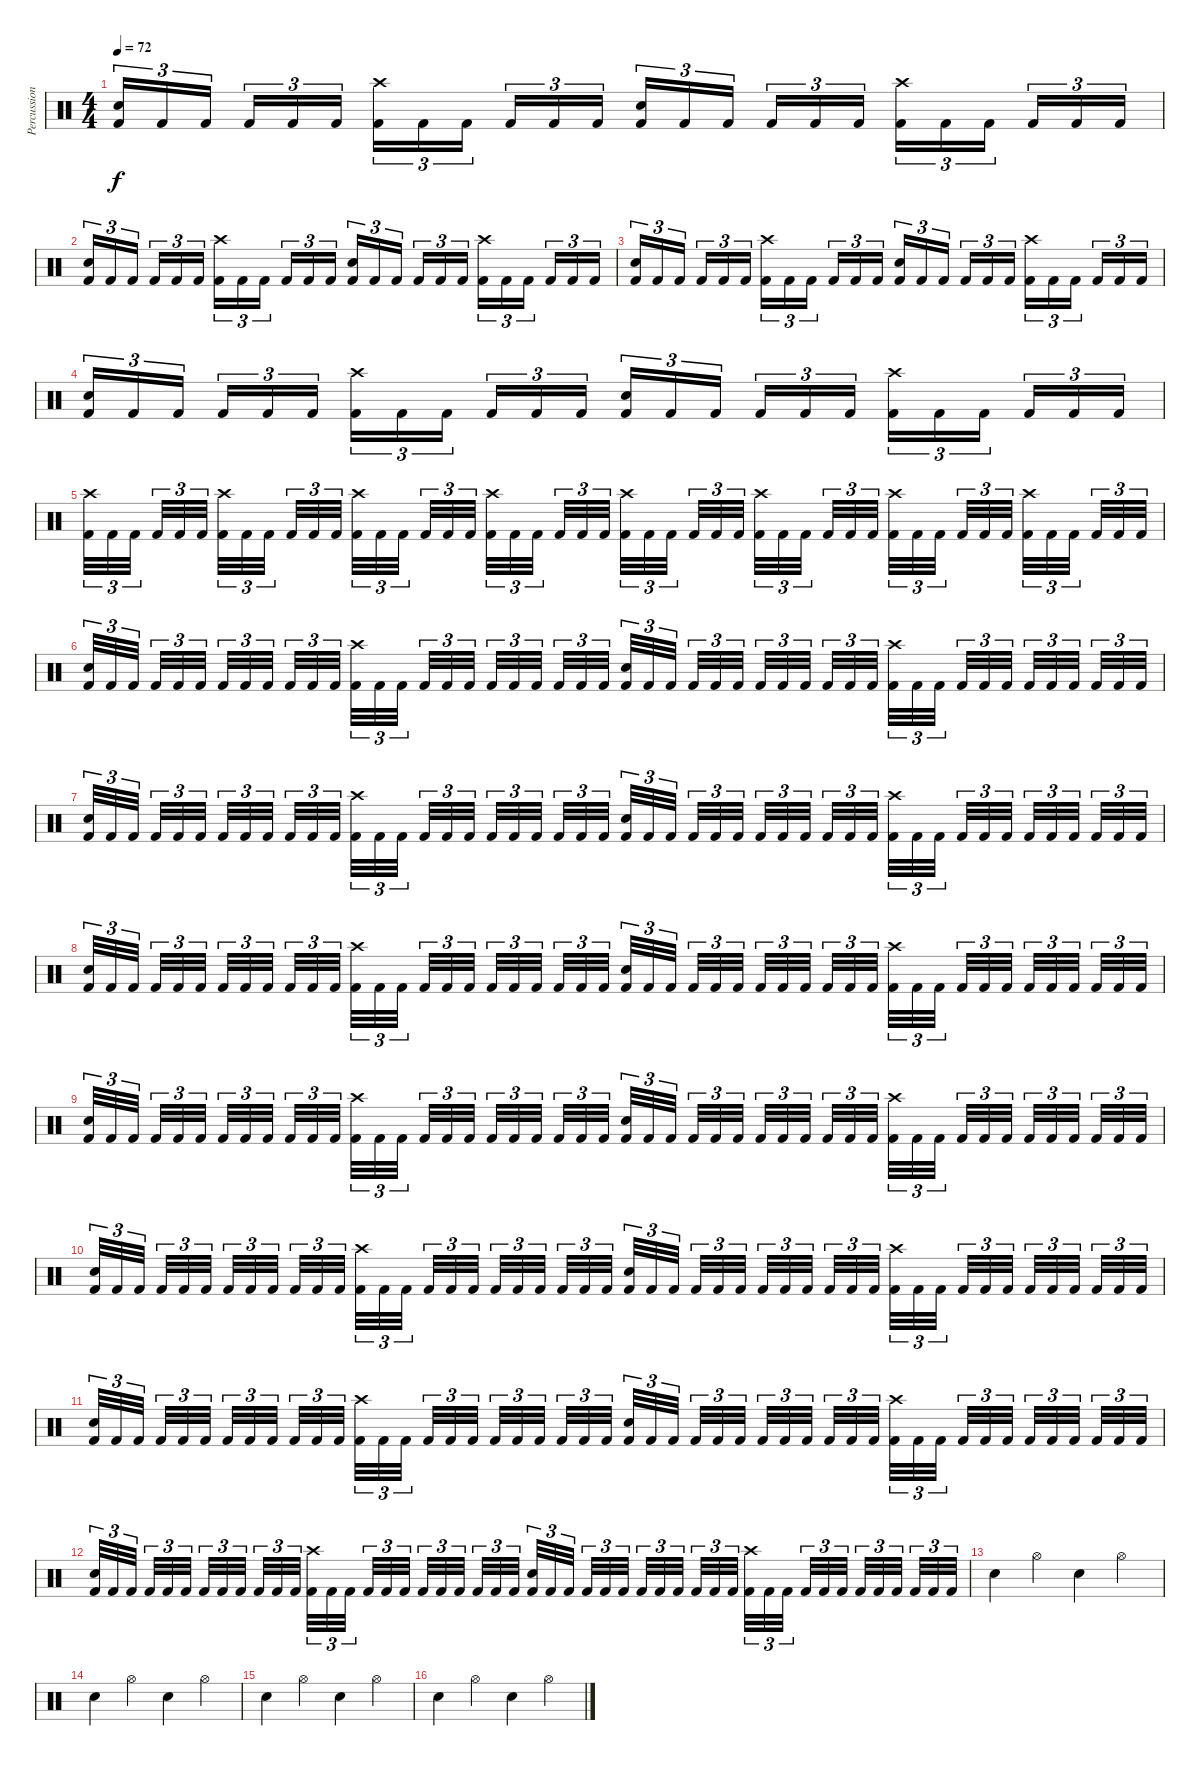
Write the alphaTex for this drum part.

\track ("Percussion" "Percussion") {instrument percussion}
\staff {score}
\articulation defaults
\ts (4 4)
\tempo 72
\clef neutral
\ks c
("Snare (hit) 2" "Kick (hit) 2").16{tu (3 2) dy f} "Kick (hit) 2".16{tu (3 2)} "Kick (hit) 2".16{tu (3 2) beam splitsecondary} "Kick (hit) 2".16{tu (3 2)} "Kick (hit) 2".16{tu (3 2)} "Kick (hit) 2".16{tu (3 2)} ("Crash high (hit)" "Kick (hit) 2").16{tu (3 2)} "Kick (hit) 2".16{tu (3 2)} "Kick (hit) 2".16{tu (3 2) beam splitsecondary} "Kick (hit) 2".16{tu (3 2)} "Kick (hit) 2".16{tu (3 2)} "Kick (hit) 2".16{tu (3 2)} ("Snare (hit) 2" "Kick (hit) 2").16{tu (3 2)} "Kick (hit) 2".16{tu (3 2)} "Kick (hit) 2".16{tu (3 2) beam splitsecondary} "Kick (hit) 2".16{tu (3 2)} "Kick (hit) 2".16{tu (3 2)} "Kick (hit) 2".16{tu (3 2)} ("Crash high (hit)" "Kick (hit) 2").16{tu (3 2)} "Kick (hit) 2".16{tu (3 2)} "Kick (hit) 2".16{tu (3 2) beam splitsecondary} "Kick (hit) 2".16{tu (3 2)} "Kick (hit) 2".16{tu (3 2)} "Kick (hit) 2".16{tu (3 2)} |
("Snare (hit) 2" "Kick (hit) 2").16{tu (3 2)} "Kick (hit) 2".16{tu (3 2)} "Kick (hit) 2".16{tu (3 2) beam splitsecondary} "Kick (hit) 2".16{tu (3 2)} "Kick (hit) 2".16{tu (3 2)} "Kick (hit) 2".16{tu (3 2)} ("Crash high (hit)" "Kick (hit) 2").16{tu (3 2)} "Kick (hit) 2".16{tu (3 2)} "Kick (hit) 2".16{tu (3 2) beam splitsecondary} "Kick (hit) 2".16{tu (3 2)} "Kick (hit) 2".16{tu (3 2)} "Kick (hit) 2".16{tu (3 2)} ("Snare (hit) 2" "Kick (hit) 2").16{tu (3 2)} "Kick (hit) 2".16{tu (3 2)} "Kick (hit) 2".16{tu (3 2) beam splitsecondary} "Kick (hit) 2".16{tu (3 2)} "Kick (hit) 2".16{tu (3 2)} "Kick (hit) 2".16{tu (3 2)} ("Crash high (hit)" "Kick (hit) 2").16{tu (3 2)} "Kick (hit) 2".16{tu (3 2)} "Kick (hit) 2".16{tu (3 2) beam splitsecondary} "Kick (hit) 2".16{tu (3 2)} "Kick (hit) 2".16{tu (3 2)} "Kick (hit) 2".16{tu (3 2)} |
("Snare (hit) 2" "Kick (hit) 2").16{tu (3 2)} "Kick (hit) 2".16{tu (3 2)} "Kick (hit) 2".16{tu (3 2) beam splitsecondary} "Kick (hit) 2".16{tu (3 2)} "Kick (hit) 2".16{tu (3 2)} "Kick (hit) 2".16{tu (3 2)} ("Crash high (hit)" "Kick (hit) 2").16{tu (3 2)} "Kick (hit) 2".16{tu (3 2)} "Kick (hit) 2".16{tu (3 2) beam splitsecondary} "Kick (hit) 2".16{tu (3 2)} "Kick (hit) 2".16{tu (3 2)} "Kick (hit) 2".16{tu (3 2)} ("Snare (hit) 2" "Kick (hit) 2").16{tu (3 2)} "Kick (hit) 2".16{tu (3 2)} "Kick (hit) 2".16{tu (3 2) beam splitsecondary} "Kick (hit) 2".16{tu (3 2)} "Kick (hit) 2".16{tu (3 2)} "Kick (hit) 2".16{tu (3 2)} ("Crash high (hit)" "Kick (hit) 2").16{tu (3 2)} "Kick (hit) 2".16{tu (3 2)} "Kick (hit) 2".16{tu (3 2) beam splitsecondary} "Kick (hit) 2".16{tu (3 2)} "Kick (hit) 2".16{tu (3 2)} "Kick (hit) 2".16{tu (3 2)} |
("Snare (hit) 2" "Kick (hit) 2").16{tu (3 2)} "Kick (hit) 2".16{tu (3 2)} "Kick (hit) 2".16{tu (3 2) beam splitsecondary} "Kick (hit) 2".16{tu (3 2)} "Kick (hit) 2".16{tu (3 2)} "Kick (hit) 2".16{tu (3 2)} ("Crash high (hit)" "Kick (hit) 2").16{tu (3 2)} "Kick (hit) 2".16{tu (3 2)} "Kick (hit) 2".16{tu (3 2) beam splitsecondary} "Kick (hit) 2".16{tu (3 2)} "Kick (hit) 2".16{tu (3 2)} "Kick (hit) 2".16{tu (3 2)} ("Snare (hit) 2" "Kick (hit) 2").16{tu (3 2)} "Kick (hit) 2".16{tu (3 2)} "Kick (hit) 2".16{tu (3 2) beam splitsecondary} "Kick (hit) 2".16{tu (3 2)} "Kick (hit) 2".16{tu (3 2)} "Kick (hit) 2".16{tu (3 2)} ("Crash high (hit)" "Kick (hit) 2").16{tu (3 2)} "Kick (hit) 2".16{tu (3 2)} "Kick (hit) 2".16{tu (3 2) beam splitsecondary} "Kick (hit) 2".16{tu (3 2)} "Kick (hit) 2".16{tu (3 2)} "Kick (hit) 2".16{tu (3 2)} |
("Crash high (hit)" "Kick (hit) 2").32{tu (3 2)} "Kick (hit) 2".32{tu (3 2)} "Kick (hit) 2".32{tu (3 2) beam splitsecondary} "Kick (hit) 2".32{tu (3 2)} "Kick (hit) 2".32{tu (3 2)} "Kick (hit) 2".32{tu (3 2) beam splitsecondary} ("Crash high (hit)" "Kick (hit) 2").32{tu (3 2)} "Kick (hit) 2".32{tu (3 2)} "Kick (hit) 2".32{tu (3 2) beam splitsecondary} "Kick (hit) 2".32{tu (3 2)} "Kick (hit) 2".32{tu (3 2)} "Kick (hit) 2".32{tu (3 2)} ("Crash high (hit)" "Kick (hit) 2").32{tu (3 2)} "Kick (hit) 2".32{tu (3 2)} "Kick (hit) 2".32{tu (3 2) beam splitsecondary} "Kick (hit) 2".32{tu (3 2)} "Kick (hit) 2".32{tu (3 2)} "Kick (hit) 2".32{tu (3 2) beam splitsecondary} ("Crash high (hit)" "Kick (hit) 2").32{tu (3 2)} "Kick (hit) 2".32{tu (3 2)} "Kick (hit) 2".32{tu (3 2) beam splitsecondary} "Kick (hit) 2".32{tu (3 2)} "Kick (hit) 2".32{tu (3 2)} "Kick (hit) 2".32{tu (3 2)} ("Crash high (hit)" "Kick (hit) 2").32{tu (3 2)} "Kick (hit) 2".32{tu (3 2)} "Kick (hit) 2".32{tu (3 2) beam splitsecondary} "Kick (hit) 2".32{tu (3 2)} "Kick (hit) 2".32{tu (3 2)} "Kick (hit) 2".32{tu (3 2) beam splitsecondary} ("Crash high (hit)" "Kick (hit) 2").32{tu (3 2)} "Kick (hit) 2".32{tu (3 2)} "Kick (hit) 2".32{tu (3 2) beam splitsecondary} "Kick (hit) 2".32{tu (3 2)} "Kick (hit) 2".32{tu (3 2)} "Kick (hit) 2".32{tu (3 2)} ("Crash high (hit)" "Kick (hit) 2").32{tu (3 2)} "Kick (hit) 2".32{tu (3 2)} "Kick (hit) 2".32{tu (3 2) beam splitsecondary} "Kick (hit) 2".32{tu (3 2)} "Kick (hit) 2".32{tu (3 2)} "Kick (hit) 2".32{tu (3 2) beam splitsecondary} ("Crash high (hit)" "Kick (hit) 2").32{tu (3 2)} "Kick (hit) 2".32{tu (3 2)} "Kick (hit) 2".32{tu (3 2) beam splitsecondary} "Kick (hit) 2".32{tu (3 2)} "Kick (hit) 2".32{tu (3 2)} "Kick (hit) 2".32{tu (3 2)} |
("Snare (hit) 2" "Kick (hit) 2").32{tu (3 2)} "Kick (hit) 2".32{tu (3 2)} "Kick (hit) 2".32{tu (3 2) beam splitsecondary} "Kick (hit) 2".32{tu (3 2)} "Kick (hit) 2".32{tu (3 2)} "Kick (hit) 2".32{tu (3 2) beam splitsecondary} "Kick (hit) 2".32{tu (3 2)} "Kick (hit) 2".32{tu (3 2)} "Kick (hit) 2".32{tu (3 2) beam splitsecondary} "Kick (hit) 2".32{tu (3 2)} "Kick (hit) 2".32{tu (3 2)} "Kick (hit) 2".32{tu (3 2)} ("Crash high (hit)" "Kick (hit) 2").32{tu (3 2)} "Kick (hit) 2".32{tu (3 2)} "Kick (hit) 2".32{tu (3 2) beam splitsecondary} "Kick (hit) 2".32{tu (3 2)} "Kick (hit) 2".32{tu (3 2)} "Kick (hit) 2".32{tu (3 2) beam splitsecondary} "Kick (hit) 2".32{tu (3 2)} "Kick (hit) 2".32{tu (3 2)} "Kick (hit) 2".32{tu (3 2) beam splitsecondary} "Kick (hit) 2".32{tu (3 2)} "Kick (hit) 2".32{tu (3 2)} "Kick (hit) 2".32{tu (3 2)} ("Snare (hit) 2" "Kick (hit) 2").32{tu (3 2)} "Kick (hit) 2".32{tu (3 2)} "Kick (hit) 2".32{tu (3 2) beam splitsecondary} "Kick (hit) 2".32{tu (3 2)} "Kick (hit) 2".32{tu (3 2)} "Kick (hit) 2".32{tu (3 2) beam splitsecondary} "Kick (hit) 2".32{tu (3 2)} "Kick (hit) 2".32{tu (3 2)} "Kick (hit) 2".32{tu (3 2) beam splitsecondary} "Kick (hit) 2".32{tu (3 2)} "Kick (hit) 2".32{tu (3 2)} "Kick (hit) 2".32{tu (3 2)} ("Crash high (hit)" "Kick (hit) 2").32{tu (3 2)} "Kick (hit) 2".32{tu (3 2)} "Kick (hit) 2".32{tu (3 2) beam splitsecondary} "Kick (hit) 2".32{tu (3 2)} "Kick (hit) 2".32{tu (3 2)} "Kick (hit) 2".32{tu (3 2) beam splitsecondary} "Kick (hit) 2".32{tu (3 2)} "Kick (hit) 2".32{tu (3 2)} "Kick (hit) 2".32{tu (3 2) beam splitsecondary} "Kick (hit) 2".32{tu (3 2)} "Kick (hit) 2".32{tu (3 2)} "Kick (hit) 2".32{tu (3 2)} |
("Snare (hit) 2" "Kick (hit) 2").32{tu (3 2)} "Kick (hit) 2".32{tu (3 2)} "Kick (hit) 2".32{tu (3 2) beam splitsecondary} "Kick (hit) 2".32{tu (3 2)} "Kick (hit) 2".32{tu (3 2)} "Kick (hit) 2".32{tu (3 2) beam splitsecondary} "Kick (hit) 2".32{tu (3 2)} "Kick (hit) 2".32{tu (3 2)} "Kick (hit) 2".32{tu (3 2) beam splitsecondary} "Kick (hit) 2".32{tu (3 2)} "Kick (hit) 2".32{tu (3 2)} "Kick (hit) 2".32{tu (3 2)} ("Crash high (hit)" "Kick (hit) 2").32{tu (3 2)} "Kick (hit) 2".32{tu (3 2)} "Kick (hit) 2".32{tu (3 2) beam splitsecondary} "Kick (hit) 2".32{tu (3 2)} "Kick (hit) 2".32{tu (3 2)} "Kick (hit) 2".32{tu (3 2) beam splitsecondary} "Kick (hit) 2".32{tu (3 2)} "Kick (hit) 2".32{tu (3 2)} "Kick (hit) 2".32{tu (3 2) beam splitsecondary} "Kick (hit) 2".32{tu (3 2)} "Kick (hit) 2".32{tu (3 2)} "Kick (hit) 2".32{tu (3 2)} ("Snare (hit) 2" "Kick (hit) 2").32{tu (3 2)} "Kick (hit) 2".32{tu (3 2)} "Kick (hit) 2".32{tu (3 2) beam splitsecondary} "Kick (hit) 2".32{tu (3 2)} "Kick (hit) 2".32{tu (3 2)} "Kick (hit) 2".32{tu (3 2) beam splitsecondary} "Kick (hit) 2".32{tu (3 2)} "Kick (hit) 2".32{tu (3 2)} "Kick (hit) 2".32{tu (3 2) beam splitsecondary} "Kick (hit) 2".32{tu (3 2)} "Kick (hit) 2".32{tu (3 2)} "Kick (hit) 2".32{tu (3 2)} ("Crash high (hit)" "Kick (hit) 2").32{tu (3 2)} "Kick (hit) 2".32{tu (3 2)} "Kick (hit) 2".32{tu (3 2) beam splitsecondary} "Kick (hit) 2".32{tu (3 2)} "Kick (hit) 2".32{tu (3 2)} "Kick (hit) 2".32{tu (3 2) beam splitsecondary} "Kick (hit) 2".32{tu (3 2)} "Kick (hit) 2".32{tu (3 2)} "Kick (hit) 2".32{tu (3 2) beam splitsecondary} "Kick (hit) 2".32{tu (3 2)} "Kick (hit) 2".32{tu (3 2)} "Kick (hit) 2".32{tu (3 2)} |
("Snare (hit) 2" "Kick (hit) 2").32{tu (3 2)} "Kick (hit) 2".32{tu (3 2)} "Kick (hit) 2".32{tu (3 2) beam splitsecondary} "Kick (hit) 2".32{tu (3 2)} "Kick (hit) 2".32{tu (3 2)} "Kick (hit) 2".32{tu (3 2) beam splitsecondary} "Kick (hit) 2".32{tu (3 2)} "Kick (hit) 2".32{tu (3 2)} "Kick (hit) 2".32{tu (3 2) beam splitsecondary} "Kick (hit) 2".32{tu (3 2)} "Kick (hit) 2".32{tu (3 2)} "Kick (hit) 2".32{tu (3 2)} ("Crash high (hit)" "Kick (hit) 2").32{tu (3 2)} "Kick (hit) 2".32{tu (3 2)} "Kick (hit) 2".32{tu (3 2) beam splitsecondary} "Kick (hit) 2".32{tu (3 2)} "Kick (hit) 2".32{tu (3 2)} "Kick (hit) 2".32{tu (3 2) beam splitsecondary} "Kick (hit) 2".32{tu (3 2)} "Kick (hit) 2".32{tu (3 2)} "Kick (hit) 2".32{tu (3 2) beam splitsecondary} "Kick (hit) 2".32{tu (3 2)} "Kick (hit) 2".32{tu (3 2)} "Kick (hit) 2".32{tu (3 2)} ("Snare (hit) 2" "Kick (hit) 2").32{tu (3 2)} "Kick (hit) 2".32{tu (3 2)} "Kick (hit) 2".32{tu (3 2) beam splitsecondary} "Kick (hit) 2".32{tu (3 2)} "Kick (hit) 2".32{tu (3 2)} "Kick (hit) 2".32{tu (3 2) beam splitsecondary} "Kick (hit) 2".32{tu (3 2)} "Kick (hit) 2".32{tu (3 2)} "Kick (hit) 2".32{tu (3 2) beam splitsecondary} "Kick (hit) 2".32{tu (3 2)} "Kick (hit) 2".32{tu (3 2)} "Kick (hit) 2".32{tu (3 2)} ("Crash high (hit)" "Kick (hit) 2").32{tu (3 2)} "Kick (hit) 2".32{tu (3 2)} "Kick (hit) 2".32{tu (3 2) beam splitsecondary} "Kick (hit) 2".32{tu (3 2)} "Kick (hit) 2".32{tu (3 2)} "Kick (hit) 2".32{tu (3 2) beam splitsecondary} "Kick (hit) 2".32{tu (3 2)} "Kick (hit) 2".32{tu (3 2)} "Kick (hit) 2".32{tu (3 2) beam splitsecondary} "Kick (hit) 2".32{tu (3 2)} "Kick (hit) 2".32{tu (3 2)} "Kick (hit) 2".32{tu (3 2)} |
("Snare (hit) 2" "Kick (hit) 2").32{tu (3 2)} "Kick (hit) 2".32{tu (3 2)} "Kick (hit) 2".32{tu (3 2) beam splitsecondary} "Kick (hit) 2".32{tu (3 2)} "Kick (hit) 2".32{tu (3 2)} "Kick (hit) 2".32{tu (3 2) beam splitsecondary} "Kick (hit) 2".32{tu (3 2)} "Kick (hit) 2".32{tu (3 2)} "Kick (hit) 2".32{tu (3 2) beam splitsecondary} "Kick (hit) 2".32{tu (3 2)} "Kick (hit) 2".32{tu (3 2)} "Kick (hit) 2".32{tu (3 2)} ("Crash high (hit)" "Kick (hit) 2").32{tu (3 2)} "Kick (hit) 2".32{tu (3 2)} "Kick (hit) 2".32{tu (3 2) beam splitsecondary} "Kick (hit) 2".32{tu (3 2)} "Kick (hit) 2".32{tu (3 2)} "Kick (hit) 2".32{tu (3 2) beam splitsecondary} "Kick (hit) 2".32{tu (3 2)} "Kick (hit) 2".32{tu (3 2)} "Kick (hit) 2".32{tu (3 2) beam splitsecondary} "Kick (hit) 2".32{tu (3 2)} "Kick (hit) 2".32{tu (3 2)} "Kick (hit) 2".32{tu (3 2)} ("Snare (hit) 2" "Kick (hit) 2").32{tu (3 2)} "Kick (hit) 2".32{tu (3 2)} "Kick (hit) 2".32{tu (3 2) beam splitsecondary} "Kick (hit) 2".32{tu (3 2)} "Kick (hit) 2".32{tu (3 2)} "Kick (hit) 2".32{tu (3 2) beam splitsecondary} "Kick (hit) 2".32{tu (3 2)} "Kick (hit) 2".32{tu (3 2)} "Kick (hit) 2".32{tu (3 2) beam splitsecondary} "Kick (hit) 2".32{tu (3 2)} "Kick (hit) 2".32{tu (3 2)} "Kick (hit) 2".32{tu (3 2)} ("Crash high (hit)" "Kick (hit) 2").32{tu (3 2)} "Kick (hit) 2".32{tu (3 2)} "Kick (hit) 2".32{tu (3 2) beam splitsecondary} "Kick (hit) 2".32{tu (3 2)} "Kick (hit) 2".32{tu (3 2)} "Kick (hit) 2".32{tu (3 2) beam splitsecondary} "Kick (hit) 2".32{tu (3 2)} "Kick (hit) 2".32{tu (3 2)} "Kick (hit) 2".32{tu (3 2) beam splitsecondary} "Kick (hit) 2".32{tu (3 2)} "Kick (hit) 2".32{tu (3 2)} "Kick (hit) 2".32{tu (3 2)} |
("Snare (hit) 2" "Kick (hit) 2").32{tu (3 2)} "Kick (hit) 2".32{tu (3 2)} "Kick (hit) 2".32{tu (3 2) beam splitsecondary} "Kick (hit) 2".32{tu (3 2)} "Kick (hit) 2".32{tu (3 2)} "Kick (hit) 2".32{tu (3 2) beam splitsecondary} "Kick (hit) 2".32{tu (3 2)} "Kick (hit) 2".32{tu (3 2)} "Kick (hit) 2".32{tu (3 2) beam splitsecondary} "Kick (hit) 2".32{tu (3 2)} "Kick (hit) 2".32{tu (3 2)} "Kick (hit) 2".32{tu (3 2)} ("Crash high (hit)" "Kick (hit) 2").32{tu (3 2)} "Kick (hit) 2".32{tu (3 2)} "Kick (hit) 2".32{tu (3 2) beam splitsecondary} "Kick (hit) 2".32{tu (3 2)} "Kick (hit) 2".32{tu (3 2)} "Kick (hit) 2".32{tu (3 2) beam splitsecondary} "Kick (hit) 2".32{tu (3 2)} "Kick (hit) 2".32{tu (3 2)} "Kick (hit) 2".32{tu (3 2) beam splitsecondary} "Kick (hit) 2".32{tu (3 2)} "Kick (hit) 2".32{tu (3 2)} "Kick (hit) 2".32{tu (3 2)} ("Snare (hit) 2" "Kick (hit) 2").32{tu (3 2)} "Kick (hit) 2".32{tu (3 2)} "Kick (hit) 2".32{tu (3 2) beam splitsecondary} "Kick (hit) 2".32{tu (3 2)} "Kick (hit) 2".32{tu (3 2)} "Kick (hit) 2".32{tu (3 2) beam splitsecondary} "Kick (hit) 2".32{tu (3 2)} "Kick (hit) 2".32{tu (3 2)} "Kick (hit) 2".32{tu (3 2) beam splitsecondary} "Kick (hit) 2".32{tu (3 2)} "Kick (hit) 2".32{tu (3 2)} "Kick (hit) 2".32{tu (3 2)} ("Crash high (hit)" "Kick (hit) 2").32{tu (3 2)} "Kick (hit) 2".32{tu (3 2)} "Kick (hit) 2".32{tu (3 2) beam splitsecondary} "Kick (hit) 2".32{tu (3 2)} "Kick (hit) 2".32{tu (3 2)} "Kick (hit) 2".32{tu (3 2) beam splitsecondary} "Kick (hit) 2".32{tu (3 2)} "Kick (hit) 2".32{tu (3 2)} "Kick (hit) 2".32{tu (3 2) beam splitsecondary} "Kick (hit) 2".32{tu (3 2)} "Kick (hit) 2".32{tu (3 2)} "Kick (hit) 2".32{tu (3 2)} |
("Snare (hit) 2" "Kick (hit) 2").32{tu (3 2)} "Kick (hit) 2".32{tu (3 2)} "Kick (hit) 2".32{tu (3 2) beam splitsecondary} "Kick (hit) 2".32{tu (3 2)} "Kick (hit) 2".32{tu (3 2)} "Kick (hit) 2".32{tu (3 2) beam splitsecondary} "Kick (hit) 2".32{tu (3 2)} "Kick (hit) 2".32{tu (3 2)} "Kick (hit) 2".32{tu (3 2) beam splitsecondary} "Kick (hit) 2".32{tu (3 2)} "Kick (hit) 2".32{tu (3 2)} "Kick (hit) 2".32{tu (3 2)} ("Crash high (hit)" "Kick (hit) 2").32{tu (3 2)} "Kick (hit) 2".32{tu (3 2)} "Kick (hit) 2".32{tu (3 2) beam splitsecondary} "Kick (hit) 2".32{tu (3 2)} "Kick (hit) 2".32{tu (3 2)} "Kick (hit) 2".32{tu (3 2) beam splitsecondary} "Kick (hit) 2".32{tu (3 2)} "Kick (hit) 2".32{tu (3 2)} "Kick (hit) 2".32{tu (3 2) beam splitsecondary} "Kick (hit) 2".32{tu (3 2)} "Kick (hit) 2".32{tu (3 2)} "Kick (hit) 2".32{tu (3 2)} ("Snare (hit) 2" "Kick (hit) 2").32{tu (3 2)} "Kick (hit) 2".32{tu (3 2)} "Kick (hit) 2".32{tu (3 2) beam splitsecondary} "Kick (hit) 2".32{tu (3 2)} "Kick (hit) 2".32{tu (3 2)} "Kick (hit) 2".32{tu (3 2) beam splitsecondary} "Kick (hit) 2".32{tu (3 2)} "Kick (hit) 2".32{tu (3 2)} "Kick (hit) 2".32{tu (3 2) beam splitsecondary} "Kick (hit) 2".32{tu (3 2)} "Kick (hit) 2".32{tu (3 2)} "Kick (hit) 2".32{tu (3 2)} ("Crash high (hit)" "Kick (hit) 2").32{tu (3 2)} "Kick (hit) 2".32{tu (3 2)} "Kick (hit) 2".32{tu (3 2) beam splitsecondary} "Kick (hit) 2".32{tu (3 2)} "Kick (hit) 2".32{tu (3 2)} "Kick (hit) 2".32{tu (3 2) beam splitsecondary} "Kick (hit) 2".32{tu (3 2)} "Kick (hit) 2".32{tu (3 2)} "Kick (hit) 2".32{tu (3 2) beam splitsecondary} "Kick (hit) 2".32{tu (3 2)} "Kick (hit) 2".32{tu (3 2)} "Kick (hit) 2".32{tu (3 2)} |
("Snare (hit) 2" "Kick (hit) 2").32{tu (3 2)} "Kick (hit) 2".32{tu (3 2)} "Kick (hit) 2".32{tu (3 2) beam splitsecondary} "Kick (hit) 2".32{tu (3 2)} "Kick (hit) 2".32{tu (3 2)} "Kick (hit) 2".32{tu (3 2) beam splitsecondary} "Kick (hit) 2".32{tu (3 2)} "Kick (hit) 2".32{tu (3 2)} "Kick (hit) 2".32{tu (3 2) beam splitsecondary} "Kick (hit) 2".32{tu (3 2)} "Kick (hit) 2".32{tu (3 2)} "Kick (hit) 2".32{tu (3 2)} ("Crash high (hit)" "Kick (hit) 2").32{tu (3 2)} "Kick (hit) 2".32{tu (3 2)} "Kick (hit) 2".32{tu (3 2) beam splitsecondary} "Kick (hit) 2".32{tu (3 2)} "Kick (hit) 2".32{tu (3 2)} "Kick (hit) 2".32{tu (3 2) beam splitsecondary} "Kick (hit) 2".32{tu (3 2)} "Kick (hit) 2".32{tu (3 2)} "Kick (hit) 2".32{tu (3 2) beam splitsecondary} "Kick (hit) 2".32{tu (3 2)} "Kick (hit) 2".32{tu (3 2)} "Kick (hit) 2".32{tu (3 2)} ("Snare (hit) 2" "Kick (hit) 2").32{tu (3 2)} "Kick (hit) 2".32{tu (3 2)} "Kick (hit) 2".32{tu (3 2) beam splitsecondary} "Kick (hit) 2".32{tu (3 2)} "Kick (hit) 2".32{tu (3 2)} "Kick (hit) 2".32{tu (3 2) beam splitsecondary} "Kick (hit) 2".32{tu (3 2)} "Kick (hit) 2".32{tu (3 2)} "Kick (hit) 2".32{tu (3 2) beam splitsecondary} "Kick (hit) 2".32{tu (3 2)} "Kick (hit) 2".32{tu (3 2)} "Kick (hit) 2".32{tu (3 2)} ("Crash high (hit)" "Kick (hit) 2").32{tu (3 2)} "Kick (hit) 2".32{tu (3 2)} "Kick (hit) 2".32{tu (3 2) beam splitsecondary} "Kick (hit) 2".32{tu (3 2)} "Kick (hit) 2".32{tu (3 2)} "Kick (hit) 2".32{tu (3 2) beam splitsecondary} "Kick (hit) 2".32{tu (3 2)} "Kick (hit) 2".32{tu (3 2)} "Kick (hit) 2".32{tu (3 2) beam splitsecondary} "Kick (hit) 2".32{tu (3 2)} "Kick (hit) 2".32{tu (3 2)} "Kick (hit) 2".32{tu (3 2)} |
"Snare (hit) 2".4 "Hi-Hat (open)".4 "Snare (hit) 2".4 "Hi-Hat (open)".4 |
"Snare (hit) 2".4 "Hi-Hat (open)".4 "Snare (hit) 2".4 "Hi-Hat (open)".4 |
"Snare (hit) 2".4 "Hi-Hat (open)".4 "Snare (hit) 2".4 "Hi-Hat (open)".4 |
"Snare (hit) 2".4 "Hi-Hat (open)".4 "Snare (hit) 2".4 "Hi-Hat (open)".4
